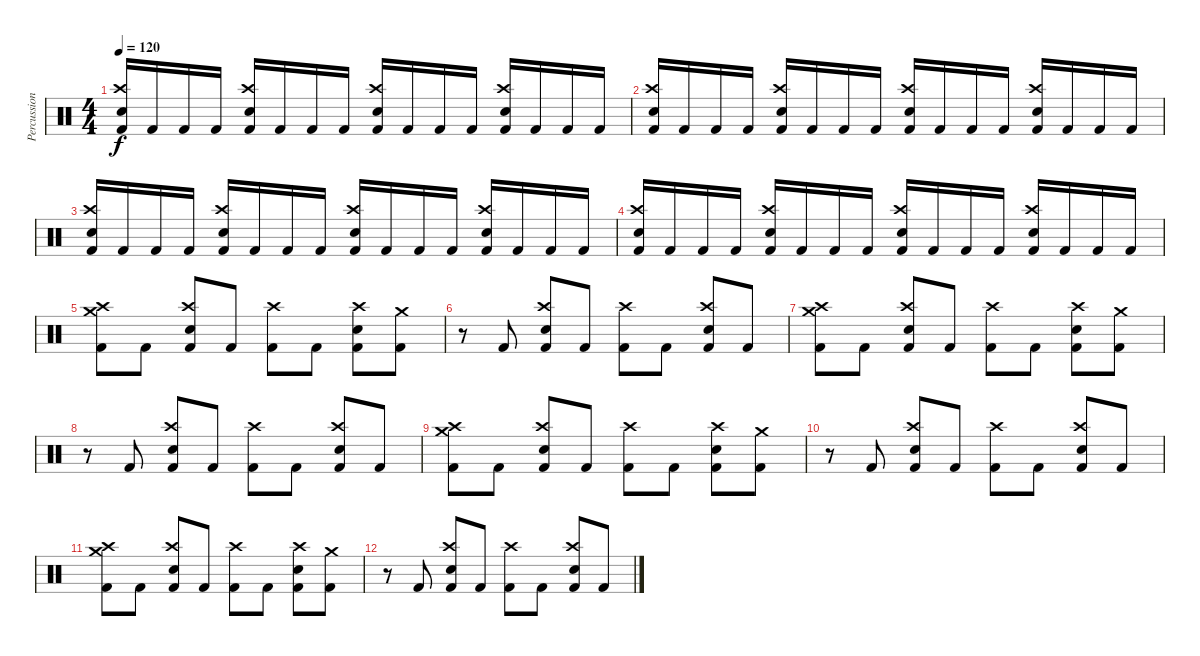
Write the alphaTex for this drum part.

\track ("Percussion" "Percussion") {instrument percussion}
\staff {score}
\articulation defaults
\ts (4 4)
\tempo 120
\clef neutral
\ks c
("Snare (hit) 2" "Crash high (hit)" "Kick (hit) 2").16{dy f} "Kick (hit) 2".16 "Kick (hit) 2".16 "Kick (hit) 2".16 ("Snare (hit) 2" "Crash high (hit)" "Kick (hit) 2").16 "Kick (hit) 2".16 "Kick (hit) 2".16 "Kick (hit) 2".16 ("Snare (hit) 2" "Crash high (hit)" "Kick (hit) 2").16 "Kick (hit) 2".16 "Kick (hit) 2".16 "Kick (hit) 2".16 ("Snare (hit) 2" "Crash high (hit)" "Kick (hit) 2").16 "Kick (hit) 2".16 "Kick (hit) 2".16 "Kick (hit) 2".16 |
("Snare (hit) 2" "Crash high (hit)" "Kick (hit) 2").16 "Kick (hit) 2".16 "Kick (hit) 2".16 "Kick (hit) 2".16 ("Snare (hit) 2" "Crash high (hit)" "Kick (hit) 2").16 "Kick (hit) 2".16 "Kick (hit) 2".16 "Kick (hit) 2".16 ("Snare (hit) 2" "Crash high (hit)" "Kick (hit) 2").16 "Kick (hit) 2".16 "Kick (hit) 2".16 "Kick (hit) 2".16 ("Snare (hit) 2" "Crash high (hit)" "Kick (hit) 2").16 "Kick (hit) 2".16 "Kick (hit) 2".16 "Kick (hit) 2".16 |
("Snare (hit) 2" "Crash high (hit)" "Kick (hit) 2").16 "Kick (hit) 2".16 "Kick (hit) 2".16 "Kick (hit) 2".16 ("Snare (hit) 2" "Crash high (hit)" "Kick (hit) 2").16 "Kick (hit) 2".16 "Kick (hit) 2".16 "Kick (hit) 2".16 ("Snare (hit) 2" "Crash high (hit)" "Kick (hit) 2").16 "Kick (hit) 2".16 "Kick (hit) 2".16 "Kick (hit) 2".16 ("Snare (hit) 2" "Crash high (hit)" "Kick (hit) 2").16 "Kick (hit) 2".16 "Kick (hit) 2".16 "Kick (hit) 2".16 |
("Snare (hit) 2" "Crash high (hit)" "Kick (hit) 2").16 "Kick (hit) 2".16 "Kick (hit) 2".16 "Kick (hit) 2".16 ("Snare (hit) 2" "Crash high (hit)" "Kick (hit) 2").16 "Kick (hit) 2".16 "Kick (hit) 2".16 "Kick (hit) 2".16 ("Snare (hit) 2" "Crash high (hit)" "Kick (hit) 2").16 "Kick (hit) 2".16 "Kick (hit) 2".16 "Kick (hit) 2".16 ("Snare (hit) 2" "Crash high (hit)" "Kick (hit) 2").16 "Kick (hit) 2".16 "Kick (hit) 2".16 "Kick (hit) 2".16 |
("Crash medium (hit)" "Crash high (hit)" "Kick (hit) 2").8 "Kick (hit) 2".8 ("Crash high (hit)" "Snare (hit) 2" "Kick (hit) 2").8 "Kick (hit) 2".8 ("Crash high (hit)" "Kick (hit) 2").8 "Kick (hit) 2".8 ("Crash high (hit)" "Snare (hit) 2" "Kick (hit) 2").8 ("Crash medium (hit)" "Kick (hit) 2").8 |
r.8 "Kick (hit) 2".8 ("Crash high (hit)" "Kick (hit) 2" "Snare (hit) 2").8 "Kick (hit) 2".8 ("Crash high (hit)" "Kick (hit) 2").8 "Kick (hit) 2".8 ("Crash high (hit)" "Kick (hit) 2" "Snare (hit) 2").8 "Kick (hit) 2".8 |
("Crash medium (hit)" "Crash high (hit)" "Kick (hit) 2").8 "Kick (hit) 2".8 ("Crash high (hit)" "Snare (hit) 2" "Kick (hit) 2").8 "Kick (hit) 2".8 ("Crash high (hit)" "Kick (hit) 2").8 "Kick (hit) 2".8 ("Crash high (hit)" "Snare (hit) 2" "Kick (hit) 2").8 ("Crash medium (hit)" "Kick (hit) 2").8 |
r.8 "Kick (hit) 2".8 ("Crash high (hit)" "Kick (hit) 2" "Snare (hit) 2").8 "Kick (hit) 2".8 ("Crash high (hit)" "Kick (hit) 2").8 "Kick (hit) 2".8 ("Crash high (hit)" "Kick (hit) 2" "Snare (hit) 2").8 "Kick (hit) 2".8 |
("Crash medium (hit)" "Crash high (hit)" "Kick (hit) 2").8 "Kick (hit) 2".8 ("Crash high (hit)" "Snare (hit) 2" "Kick (hit) 2").8 "Kick (hit) 2".8 ("Crash high (hit)" "Kick (hit) 2").8 "Kick (hit) 2".8 ("Crash high (hit)" "Snare (hit) 2" "Kick (hit) 2").8 ("Crash medium (hit)" "Kick (hit) 2").8 |
r.8 "Kick (hit) 2".8 ("Crash high (hit)" "Kick (hit) 2" "Snare (hit) 2").8 "Kick (hit) 2".8 ("Crash high (hit)" "Kick (hit) 2").8 "Kick (hit) 2".8 ("Crash high (hit)" "Kick (hit) 2" "Snare (hit) 2").8 "Kick (hit) 2".8 |
("Crash medium (hit)" "Crash high (hit)" "Kick (hit) 2").8 "Kick (hit) 2".8 ("Crash high (hit)" "Snare (hit) 2" "Kick (hit) 2").8 "Kick (hit) 2".8 ("Crash high (hit)" "Kick (hit) 2").8 "Kick (hit) 2".8 ("Crash high (hit)" "Snare (hit) 2" "Kick (hit) 2").8 ("Crash medium (hit)" "Kick (hit) 2").8 |
r.8 "Kick (hit) 2".8 ("Crash high (hit)" "Kick (hit) 2" "Snare (hit) 2").8 "Kick (hit) 2".8 ("Crash high (hit)" "Kick (hit) 2").8 "Kick (hit) 2".8 ("Crash high (hit)" "Kick (hit) 2" "Snare (hit) 2").8 "Kick (hit) 2".8
